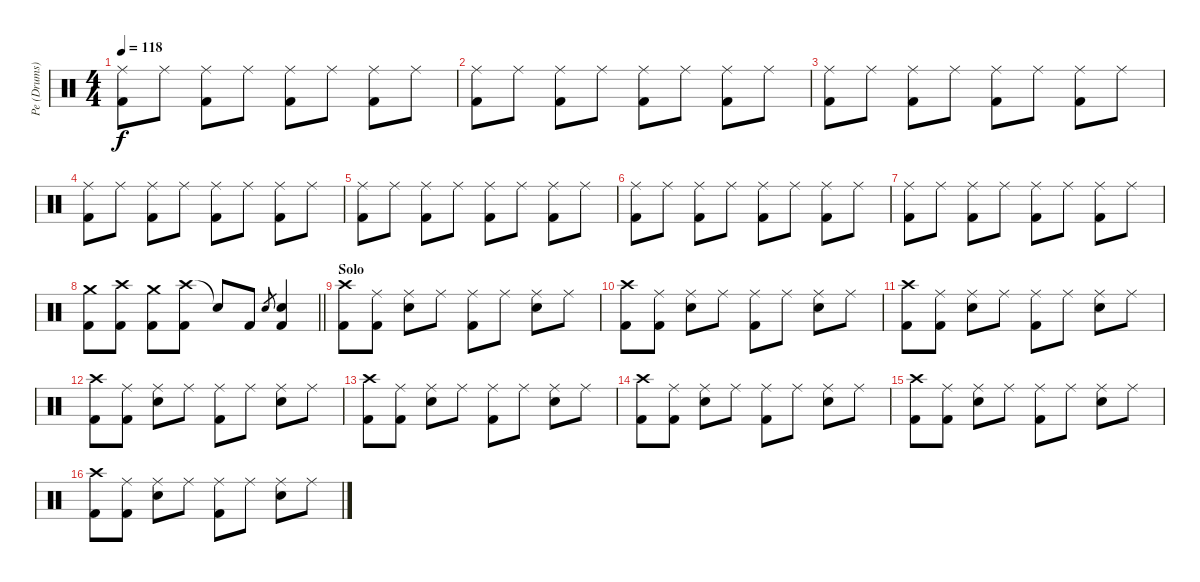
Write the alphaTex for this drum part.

\track ("Pe (Drums)" "Pe (Drums)") {instrument percussion}
\staff {score}
\articulation defaults
\ts (4 4)
\tempo 118
\clef neutral
\ks c
("Ride (middle)" "Kick (hit) 2").8{dy f} "Ride (middle)".8 ("Ride (middle)" "Kick (hit) 2").8 "Ride (middle)".8 ("Ride (middle)" "Kick (hit) 2").8 "Ride (middle)".8 ("Ride (middle)" "Kick (hit) 2").8 "Ride (middle)".8 |
("Ride (middle)" "Kick (hit) 2").8 "Ride (middle)".8 ("Ride (middle)" "Kick (hit) 2").8 "Ride (middle)".8 ("Ride (middle)" "Kick (hit) 2").8 "Ride (middle)".8 ("Ride (middle)" "Kick (hit) 2").8 "Ride (middle)".8 |
("Ride (middle)" "Kick (hit) 2").8 "Ride (middle)".8 ("Ride (middle)" "Kick (hit) 2").8 "Ride (middle)".8 ("Ride (middle)" "Kick (hit) 2").8 "Ride (middle)".8 ("Ride (middle)" "Kick (hit) 2").8 "Ride (middle)".8 |
("Ride (middle)" "Kick (hit) 2").8 "Ride (middle)".8 ("Ride (middle)" "Kick (hit) 2").8 "Ride (middle)".8 ("Ride (middle)" "Kick (hit) 2").8 "Ride (middle)".8 ("Ride (middle)" "Kick (hit) 2").8 "Ride (middle)".8 |
("Ride (middle)" "Kick (hit) 2").8 "Ride (middle)".8 ("Ride (middle)" "Kick (hit) 2").8 "Ride (middle)".8 ("Ride (middle)" "Kick (hit) 2").8 "Ride (middle)".8 ("Ride (middle)" "Kick (hit) 2").8 "Ride (middle)".8 |
("Ride (middle)" "Kick (hit) 2").8 "Ride (middle)".8 ("Ride (middle)" "Kick (hit) 2").8 "Ride (middle)".8 ("Ride (middle)" "Kick (hit) 2").8 "Ride (middle)".8 ("Ride (middle)" "Kick (hit) 2").8 "Ride (middle)".8 |
("Ride (middle)" "Kick (hit) 2").8 "Ride (middle)".8 ("Ride (middle)" "Kick (hit) 2").8 "Ride (middle)".8 ("Ride (middle)" "Kick (hit) 2").8 "Ride (middle)".8 ("Ride (middle)" "Kick (hit) 2").8 "Ride (middle)".8 |
\barLineRight lightlight
("Crash medium (hit)" "Kick (hit) 2").8 ("Crash high (hit)" "Kick (hit) 2").8 ("Crash medium (hit)" "Kick (hit) 2").8 ("Crash high (hit)" "Kick (hit) 2").8 "Snare (hit)"{t}.8 "Kick (hit) 2".8 "Snare (hit) 2".8{gr} ("Snare (hit) 2" "Kick (hit) 2").4 |
\section ("" "Solo")
("Crash high (hit)" "Kick (hit) 2").8 ("Ride (middle)" "Kick (hit) 2").8 ("Ride (middle)" "Snare (hit) 2").8 "Ride (middle)".8 ("Ride (middle)" "Kick (hit) 2").8 "Ride (middle)".8 ("Ride (middle)" "Snare (hit) 2").8 "Ride (middle)".8 |
("Crash high (hit)" "Kick (hit) 2").8 ("Ride (middle)" "Kick (hit) 2").8 ("Ride (middle)" "Snare (hit) 2").8 "Ride (middle)".8 ("Ride (middle)" "Kick (hit) 2").8 "Ride (middle)".8 ("Ride (middle)" "Snare (hit) 2").8 "Ride (middle)".8 |
("Crash high (hit)" "Kick (hit) 2").8 ("Ride (middle)" "Kick (hit) 2").8 ("Ride (middle)" "Snare (hit) 2").8 "Ride (middle)".8 ("Ride (middle)" "Kick (hit) 2").8 "Ride (middle)".8 ("Ride (middle)" "Snare (hit) 2").8 "Ride (middle)".8 |
("Crash high (hit)" "Kick (hit) 2").8 ("Ride (middle)" "Kick (hit) 2").8 ("Ride (middle)" "Snare (hit) 2").8 "Ride (middle)".8 ("Ride (middle)" "Kick (hit) 2").8 "Ride (middle)".8 ("Ride (middle)" "Snare (hit) 2").8 "Ride (middle)".8 |
("Crash high (hit)" "Kick (hit) 2").8 ("Ride (middle)" "Kick (hit) 2").8 ("Ride (middle)" "Snare (hit) 2").8 "Ride (middle)".8 ("Ride (middle)" "Kick (hit) 2").8 "Ride (middle)".8 ("Ride (middle)" "Snare (hit) 2").8 "Ride (middle)".8 |
("Crash high (hit)" "Kick (hit) 2").8 ("Ride (middle)" "Kick (hit) 2").8 ("Ride (middle)" "Snare (hit) 2").8 "Ride (middle)".8 ("Ride (middle)" "Kick (hit) 2").8 "Ride (middle)".8 ("Ride (middle)" "Snare (hit) 2").8 "Ride (middle)".8 |
("Crash high (hit)" "Kick (hit) 2").8 ("Ride (middle)" "Kick (hit) 2").8 ("Ride (middle)" "Snare (hit) 2").8 "Ride (middle)".8 ("Ride (middle)" "Kick (hit) 2").8 "Ride (middle)".8 ("Ride (middle)" "Snare (hit) 2").8 "Ride (middle)".8 |
("Crash high (hit)" "Kick (hit) 2").8 ("Ride (middle)" "Kick (hit) 2").8 ("Ride (middle)" "Snare (hit) 2").8 "Ride (middle)".8 ("Ride (middle)" "Kick (hit) 2").8 "Ride (middle)".8 ("Ride (middle)" "Snare (hit) 2").8 "Ride (middle)".8
